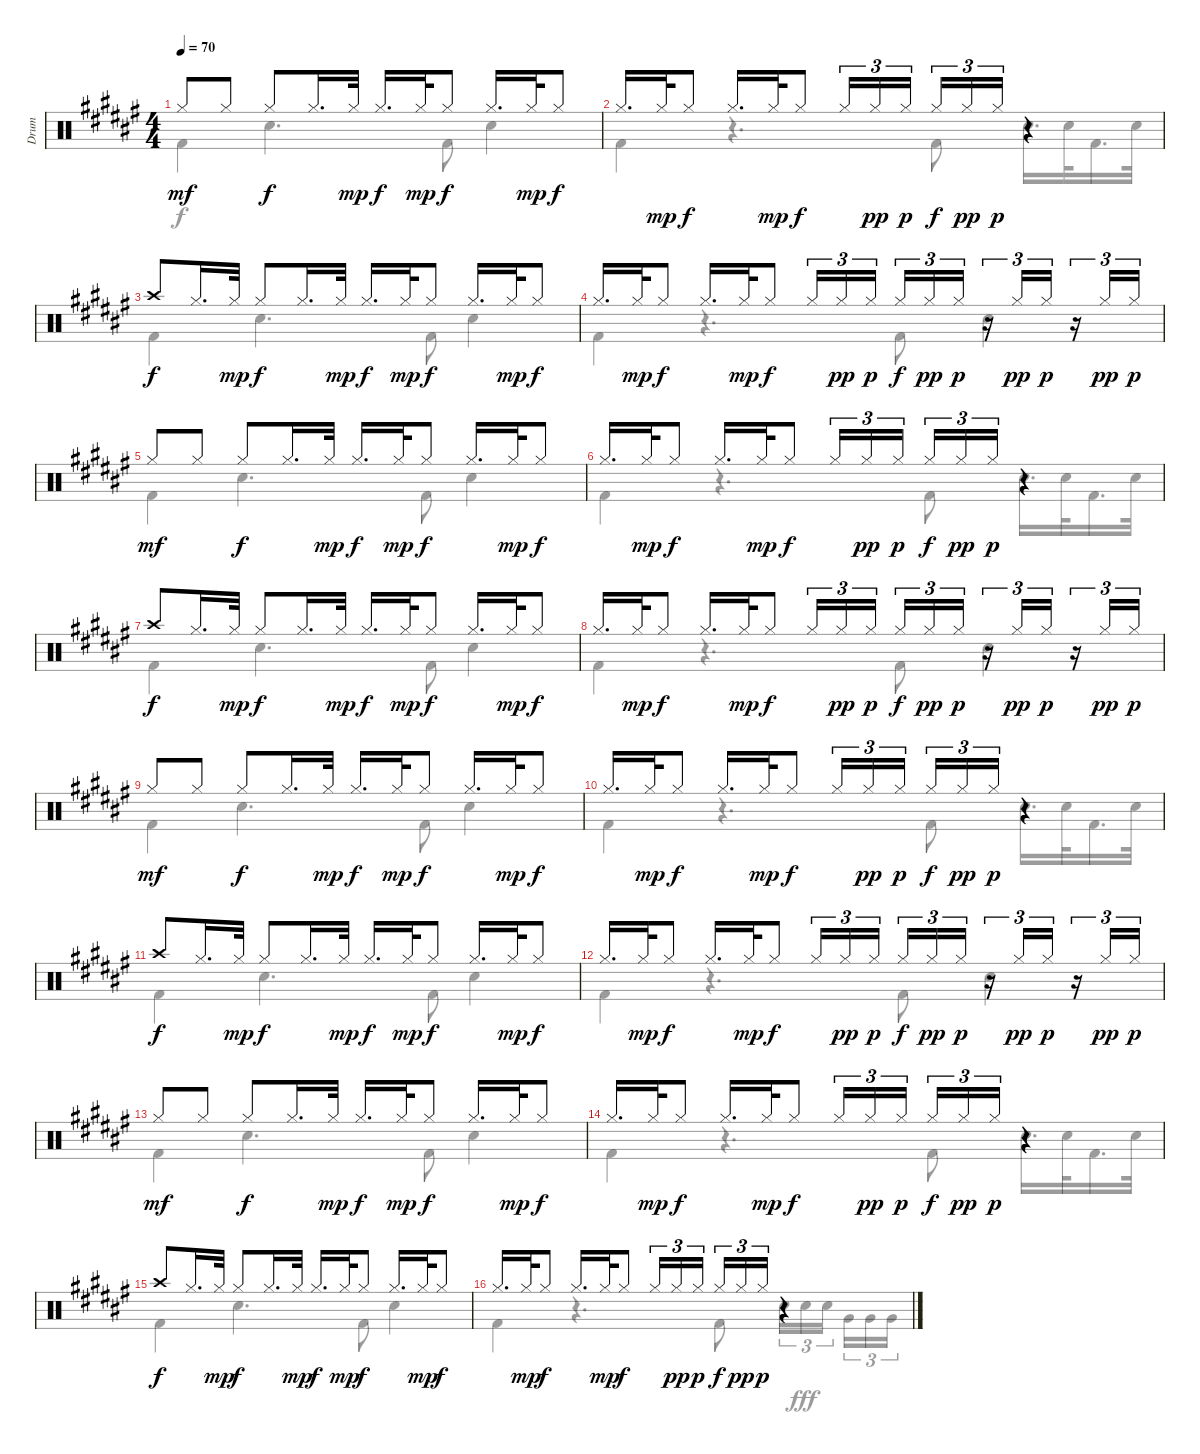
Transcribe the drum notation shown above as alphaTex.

\track ("Drum" "Drum") {instrument percussion}
\staff {score}
\articulation defaults
\voice
\ts (4 4)
\tempo 70
\clef neutral
\ks f# "Hi-Hat (closed)".8{dy mf} "Hi-Hat (closed)".8 "Hi-Hat (closed)".8{dy f} "Hi-Hat (closed)".16{d} "Hi-Hat (closed)".32{dy mp} "Hi-Hat (closed)".16{d dy f} "Hi-Hat (closed)".32{dy mp} "Hi-Hat (closed)".8{dy f} "Hi-Hat (closed)".16{d} "Hi-Hat (closed)".32{dy mp} "Hi-Hat (closed)".8{dy f}
|
"Hi-Hat (closed)".16{d} "Hi-Hat (closed)".32{dy mp} "Hi-Hat (closed)".8{dy f} "Hi-Hat (closed)".16{d} "Hi-Hat (closed)".32{dy mp} "Hi-Hat (closed)".8{dy f} "Hi-Hat (closed)".16{tu (3 2)} "Hi-Hat (closed)".16{tu (3 2) dy pp} "Hi-Hat (closed)".16{tu (3 2) dy p beam splitsecondary} "Hi-Hat (closed)".16{tu (3 2) dy f} "Hi-Hat (closed)".16{tu (3 2) dy pp} "Hi-Hat (closed)".16{tu (3 2) dy p} r.4 |
"Crash high (hit)".8{dy f} "Hi-Hat (closed)".16{d} "Hi-Hat (closed)".32{dy mp} "Hi-Hat (closed)".8{dy f} "Hi-Hat (closed)".16{d} "Hi-Hat (closed)".32{dy mp} "Hi-Hat (closed)".16{d dy f} "Hi-Hat (closed)".32{dy mp} "Hi-Hat (closed)".8{dy f} "Hi-Hat (closed)".16{d} "Hi-Hat (closed)".32{dy mp} "Hi-Hat (closed)".8{dy f} |
"Hi-Hat (closed)".16{d} "Hi-Hat (closed)".32{dy mp} "Hi-Hat (closed)".8{dy f} "Hi-Hat (closed)".16{d} "Hi-Hat (closed)".32{dy mp} "Hi-Hat (closed)".8{dy f} "Hi-Hat (closed)".16{tu (3 2)} "Hi-Hat (closed)".16{tu (3 2) dy pp} "Hi-Hat (closed)".16{tu (3 2) dy p beam splitsecondary} "Hi-Hat (closed)".16{tu (3 2) dy f} "Hi-Hat (closed)".16{tu (3 2) dy pp} "Hi-Hat (closed)".16{tu (3 2) dy p} r.16{tu (3 2)} "Hi-Hat (closed)".16{tu (3 2) dy pp} "Hi-Hat (closed)".16{tu (3 2) dy p} r.16{tu (3 2)} "Hi-Hat (closed)".16{tu (3 2) dy pp} "Hi-Hat (closed)".16{tu (3 2) dy p} |
"Hi-Hat (closed)".8{dy mf} "Hi-Hat (closed)".8 "Hi-Hat (closed)".8{dy f} "Hi-Hat (closed)".16{d} "Hi-Hat (closed)".32{dy mp} "Hi-Hat (closed)".16{d dy f} "Hi-Hat (closed)".32{dy mp} "Hi-Hat (closed)".8{dy f} "Hi-Hat (closed)".16{d} "Hi-Hat (closed)".32{dy mp} "Hi-Hat (closed)".8{dy f} |
"Hi-Hat (closed)".16{d} "Hi-Hat (closed)".32{dy mp} "Hi-Hat (closed)".8{dy f} "Hi-Hat (closed)".16{d} "Hi-Hat (closed)".32{dy mp} "Hi-Hat (closed)".8{dy f} "Hi-Hat (closed)".16{tu (3 2)} "Hi-Hat (closed)".16{tu (3 2) dy pp} "Hi-Hat (closed)".16{tu (3 2) dy p beam splitsecondary} "Hi-Hat (closed)".16{tu (3 2) dy f} "Hi-Hat (closed)".16{tu (3 2) dy pp} "Hi-Hat (closed)".16{tu (3 2) dy p} r.4 |
"Crash high (hit)".8{dy f} "Hi-Hat (closed)".16{d} "Hi-Hat (closed)".32{dy mp} "Hi-Hat (closed)".8{dy f} "Hi-Hat (closed)".16{d} "Hi-Hat (closed)".32{dy mp} "Hi-Hat (closed)".16{d dy f} "Hi-Hat (closed)".32{dy mp} "Hi-Hat (closed)".8{dy f} "Hi-Hat (closed)".16{d} "Hi-Hat (closed)".32{dy mp} "Hi-Hat (closed)".8{dy f} |
"Hi-Hat (closed)".16{d} "Hi-Hat (closed)".32{dy mp} "Hi-Hat (closed)".8{dy f} "Hi-Hat (closed)".16{d} "Hi-Hat (closed)".32{dy mp} "Hi-Hat (closed)".8{dy f} "Hi-Hat (closed)".16{tu (3 2)} "Hi-Hat (closed)".16{tu (3 2) dy pp} "Hi-Hat (closed)".16{tu (3 2) dy p beam splitsecondary} "Hi-Hat (closed)".16{tu (3 2) dy f} "Hi-Hat (closed)".16{tu (3 2) dy pp} "Hi-Hat (closed)".16{tu (3 2) dy p} r.16{tu (3 2)} "Hi-Hat (closed)".16{tu (3 2) dy pp} "Hi-Hat (closed)".16{tu (3 2) dy p} r.16{tu (3 2)} "Hi-Hat (closed)".16{tu (3 2) dy pp} "Hi-Hat (closed)".16{tu (3 2) dy p} |
"Hi-Hat (closed)".8{dy mf} "Hi-Hat (closed)".8 "Hi-Hat (closed)".8{dy f} "Hi-Hat (closed)".16{d} "Hi-Hat (closed)".32{dy mp} "Hi-Hat (closed)".16{d dy f} "Hi-Hat (closed)".32{dy mp} "Hi-Hat (closed)".8{dy f} "Hi-Hat (closed)".16{d} "Hi-Hat (closed)".32{dy mp} "Hi-Hat (closed)".8{dy f} |
"Hi-Hat (closed)".16{d} "Hi-Hat (closed)".32{dy mp} "Hi-Hat (closed)".8{dy f} "Hi-Hat (closed)".16{d} "Hi-Hat (closed)".32{dy mp} "Hi-Hat (closed)".8{dy f} "Hi-Hat (closed)".16{tu (3 2)} "Hi-Hat (closed)".16{tu (3 2) dy pp} "Hi-Hat (closed)".16{tu (3 2) dy p beam splitsecondary} "Hi-Hat (closed)".16{tu (3 2) dy f} "Hi-Hat (closed)".16{tu (3 2) dy pp} "Hi-Hat (closed)".16{tu (3 2) dy p} r.4 |
"Crash high (hit)".8{dy f} "Hi-Hat (closed)".16{d} "Hi-Hat (closed)".32{dy mp} "Hi-Hat (closed)".8{dy f} "Hi-Hat (closed)".16{d} "Hi-Hat (closed)".32{dy mp} "Hi-Hat (closed)".16{d dy f} "Hi-Hat (closed)".32{dy mp} "Hi-Hat (closed)".8{dy f} "Hi-Hat (closed)".16{d} "Hi-Hat (closed)".32{dy mp} "Hi-Hat (closed)".8{dy f} |
"Hi-Hat (closed)".16{d} "Hi-Hat (closed)".32{dy mp} "Hi-Hat (closed)".8{dy f} "Hi-Hat (closed)".16{d} "Hi-Hat (closed)".32{dy mp} "Hi-Hat (closed)".8{dy f} "Hi-Hat (closed)".16{tu (3 2)} "Hi-Hat (closed)".16{tu (3 2) dy pp} "Hi-Hat (closed)".16{tu (3 2) dy p beam splitsecondary} "Hi-Hat (closed)".16{tu (3 2) dy f} "Hi-Hat (closed)".16{tu (3 2) dy pp} "Hi-Hat (closed)".16{tu (3 2) dy p} r.16{tu (3 2)} "Hi-Hat (closed)".16{tu (3 2) dy pp} "Hi-Hat (closed)".16{tu (3 2) dy p} r.16{tu (3 2)} "Hi-Hat (closed)".16{tu (3 2) dy pp} "Hi-Hat (closed)".16{tu (3 2) dy p} |
"Hi-Hat (closed)".8{dy mf} "Hi-Hat (closed)".8 "Hi-Hat (closed)".8{dy f} "Hi-Hat (closed)".16{d} "Hi-Hat (closed)".32{dy mp} "Hi-Hat (closed)".16{d dy f} "Hi-Hat (closed)".32{dy mp} "Hi-Hat (closed)".8{dy f} "Hi-Hat (closed)".16{d} "Hi-Hat (closed)".32{dy mp} "Hi-Hat (closed)".8{dy f} |
"Hi-Hat (closed)".16{d} "Hi-Hat (closed)".32{dy mp} "Hi-Hat (closed)".8{dy f} "Hi-Hat (closed)".16{d} "Hi-Hat (closed)".32{dy mp} "Hi-Hat (closed)".8{dy f} "Hi-Hat (closed)".16{tu (3 2)} "Hi-Hat (closed)".16{tu (3 2) dy pp} "Hi-Hat (closed)".16{tu (3 2) dy p beam splitsecondary} "Hi-Hat (closed)".16{tu (3 2) dy f} "Hi-Hat (closed)".16{tu (3 2) dy pp} "Hi-Hat (closed)".16{tu (3 2) dy p} r.4 |
"Crash high (hit)".8{dy f} "Hi-Hat (closed)".16{d} "Hi-Hat (closed)".32{dy mp} "Hi-Hat (closed)".8{dy f} "Hi-Hat (closed)".16{d} "Hi-Hat (closed)".32{dy mp} "Hi-Hat (closed)".16{d dy f} "Hi-Hat (closed)".32{dy mp} "Hi-Hat (closed)".8{dy f} "Hi-Hat (closed)".16{d} "Hi-Hat (closed)".32{dy mp} "Hi-Hat (closed)".8{dy f} |
"Hi-Hat (closed)".16{d} "Hi-Hat (closed)".32{dy mp} "Hi-Hat (closed)".8{dy f} "Hi-Hat (closed)".16{d} "Hi-Hat (closed)".32{dy mp} "Hi-Hat (closed)".8{dy f} "Hi-Hat (closed)".16{tu (3 2)} "Hi-Hat (closed)".16{tu (3 2) dy pp} "Hi-Hat (closed)".16{tu (3 2) dy p beam splitsecondary} "Hi-Hat (closed)".16{tu (3 2) dy f} "Hi-Hat (closed)".16{tu (3 2) dy pp} "Hi-Hat (closed)".16{tu (3 2) dy p} r.4
\voice
\clef neutral
\ottava regular
\simile none
\ks f# "Kick (hit) 2".4{dy f} "Snare (hit) 2".4{d} "Kick (hit) 2".8 "Snare (hit) 2".4
|
"Kick (hit) 2".4 r.4{d} "Kick (hit) 2".8 "Snare (hit) 2".16{d} "Snare (hit) 2".32 "Kick (hit) 2".16{d} "Snare (hit) 2".32 |
"Kick (hit) 2".4 "Snare (hit) 2".4{d} "Kick (hit) 2".8 "Snare (hit) 2".4 |
"Kick (hit) 2".4 r.4{d} "Kick (hit) 2".8 "Snare (hit) 2".4 |
"Kick (hit) 2".4 "Snare (hit) 2".4{d} "Kick (hit) 2".8 "Snare (hit) 2".4 |
"Kick (hit) 2".4 r.4{d} "Kick (hit) 2".8 "Snare (hit) 2".16{d} "Snare (hit) 2".32 "Kick (hit) 2".16{d} "Snare (hit) 2".32 |
"Kick (hit) 2".4 "Snare (hit) 2".4{d} "Kick (hit) 2".8 "Snare (hit) 2".4 |
"Kick (hit) 2".4 r.4{d} "Kick (hit) 2".8 "Snare (hit) 2".4 |
"Kick (hit) 2".4 "Snare (hit) 2".4{d} "Kick (hit) 2".8 "Snare (hit) 2".4 |
"Kick (hit) 2".4 r.4{d} "Kick (hit) 2".8 "Snare (hit) 2".16{d} "Snare (hit) 2".32 "Kick (hit) 2".16{d} "Snare (hit) 2".32 |
"Kick (hit) 2".4 "Snare (hit) 2".4{d} "Kick (hit) 2".8 "Snare (hit) 2".4 |
"Kick (hit) 2".4 r.4{d} "Kick (hit) 2".8 "Snare (hit) 2".4 |
"Kick (hit) 2".4 "Snare (hit) 2".4{d} "Kick (hit) 2".8 "Snare (hit) 2".4 |
"Kick (hit) 2".4 r.4{d} "Kick (hit) 2".8 "Snare (hit) 2".16{d} "Snare (hit) 2".32 "Kick (hit) 2".16{d} "Snare (hit) 2".32 |
"Kick (hit) 2".4 "Snare (hit) 2".4{d} "Kick (hit) 2".8 "Snare (hit) 2".4 |
"Kick (hit) 2".4 r.4{d} "Kick (hit) 2".8 "Snare (hit) 2".16{tu (3 2)} "Snare (hit) 2".16{tu (3 2) dy fff} "Snare (hit) 2".16{tu (3 2) beam splitsecondary} "Very Low Tom (hit)".16{tu (3 2)} "Very Low Tom (hit)".16{tu (3 2)} "Very Low Tom (hit)".16{tu (3 2)}
